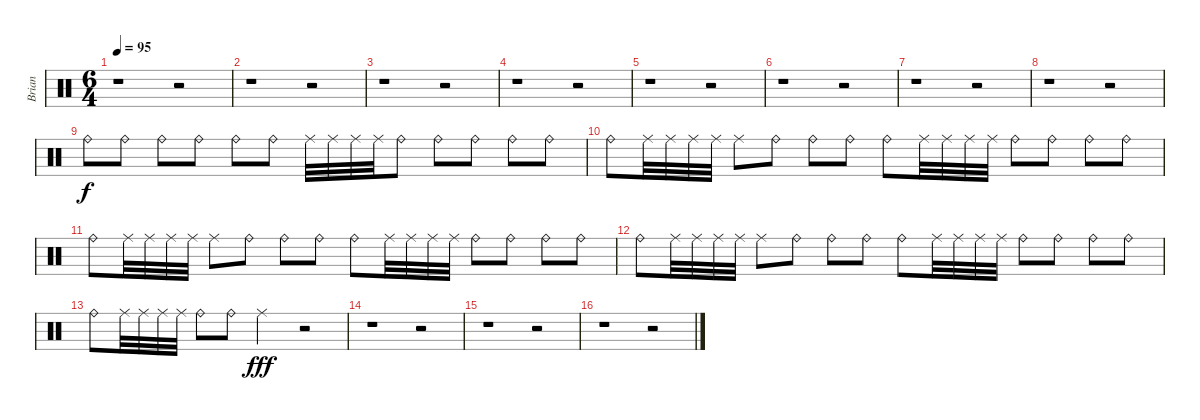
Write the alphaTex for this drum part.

\track ("Brian" "Brian") {instrument percussion}
\staff {score}
\articulation defaults
\ts (6 4)
\tempo 95
\clef neutral
\ks c
r.1{dy f} r.2 |
r.1 r.2 |
r.1 r.2 |
r.1 r.2 |
r.1 r.2 |
r.1 r.2 |
r.1 r.2 |
r.1 r.2 |
"Ride (bell)".8 "Ride (bell)".8 "Ride (bell)".8 "Ride (bell)".8 "Ride (bell)".8 "Ride (bell)".8 "Ride (middle)".32 "Ride (middle)".32 "Ride (middle)".32 "Ride (middle)".32 "Ride (bell)".8 "Ride (bell)".8 "Ride (bell)".8 "Ride (bell)".8 "Ride (bell)".8 |
"Ride (bell)".8 "Ride (middle)".32 "Ride (middle)".32 "Ride (middle)".32 "Ride (middle)".32 "Ride (middle)".8 "Ride (bell)".8 "Ride (bell)".8 "Ride (bell)".8 "Ride (bell)".8 "Ride (middle)".32 "Ride (middle)".32 "Ride (middle)".32 "Ride (middle)".32 "Ride (bell)".8 "Ride (bell)".8 "Ride (bell)".8 "Ride (bell)".8 |
"Ride (bell)".8 "Ride (middle)".32 "Ride (middle)".32 "Ride (middle)".32 "Ride (middle)".32 "Ride (middle)".8 "Ride (bell)".8 "Ride (bell)".8 "Ride (bell)".8 "Ride (bell)".8 "Ride (middle)".32 "Ride (middle)".32 "Ride (middle)".32 "Ride (middle)".32 "Ride (bell)".8 "Ride (bell)".8 "Ride (bell)".8 "Ride (bell)".8 |
"Ride (bell)".8 "Ride (middle)".32 "Ride (middle)".32 "Ride (middle)".32 "Ride (middle)".32 "Ride (middle)".8 "Ride (bell)".8 "Ride (bell)".8 "Ride (bell)".8 "Ride (bell)".8 "Ride (middle)".32 "Ride (middle)".32 "Ride (middle)".32 "Ride (middle)".32 "Ride (bell)".8 "Ride (bell)".8 "Ride (bell)".8 "Ride (bell)".8 |
"Ride (bell)".8 "Ride (middle)".32 "Ride (middle)".32 "Ride (middle)".32 "Ride (middle)".32 "Ride (bell)".8 "Ride (bell)".8 "Ride (middle)".2{dy fff} r.2 |
r.1 r.2 |
r.1 r.2 |
r.1 r.2
